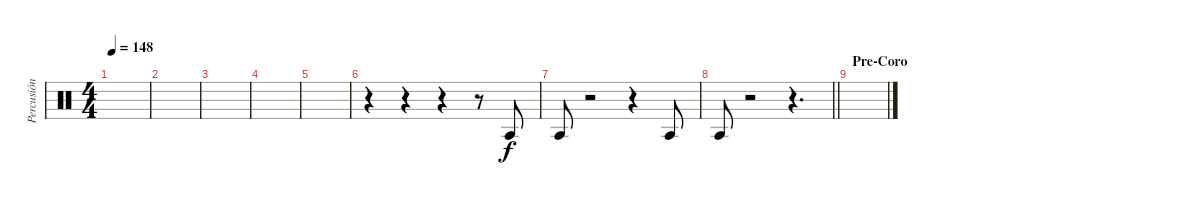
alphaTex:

\track ("Percusión" "Percusión") {instrument percussion}
\staff {score}
\articulation defaults
\ts (4 4)
\tempo 148
\clef neutral
\ks c
|
|
|
|
|
r.4 r.4 r.4 r.8 "Agogo tow (hit)".8 |
"Agogo tow (hit)".8 r.2 r.4 "Agogo tow (hit)".8 |
\barLineRight lightlight "Agogo tow (hit)".8
r.2 r.4{d} |
\section ("" "Pre-Coro")
